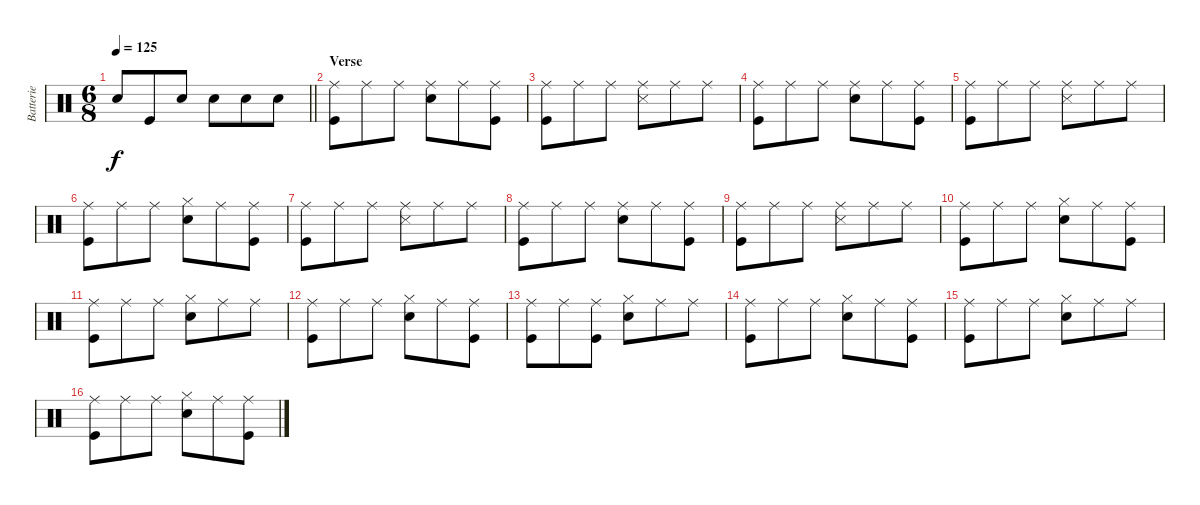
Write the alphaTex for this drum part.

\track ("Batterie" "Batterie") {instrument percussion}
\staff {score}
\articulation defaults
\ts (6 8)
\tempo 125
\clef neutral
\barLineRight lightlight
\ks c "Snare (hit) 2".8{dy f} "Kick (hit)".8 "Snare (hit) 2".8 "Snare (hit) 2".8 "Snare (hit) 2".8 "Snare (hit) 2".8
|
\section ("" "Verse")
("Ride (middle)" "Kick (hit)").8 "Ride (middle)".8 "Ride (middle)".8 ("Ride (middle)" "Snare (hit) 2").8 "Ride (middle)".8 ("Ride (middle)" "Kick (hit)").8 |
("Ride (middle)" "Kick (hit)").8 "Ride (middle)".8 "Ride (middle)".8 ("Ride (middle)" "Snare (side stick) 3").8 "Ride (middle)".8 "Ride (middle)".8 |
("Ride (middle)" "Kick (hit)").8 "Ride (middle)".8 "Ride (middle)".8 ("Ride (middle)" "Snare (hit) 2").8 "Ride (middle)".8 ("Ride (middle)" "Kick (hit)").8 |
("Ride (middle)" "Kick (hit)").8 "Ride (middle)".8 "Ride (middle)".8 ("Ride (middle)" "Snare (side stick) 3").8 "Ride (middle)".8 "Ride (middle)".8 |
("Ride (middle)" "Kick (hit)").8 "Ride (middle)".8 "Ride (middle)".8 ("Hi-Hat (closed)" "Snare (hit) 2").8 "Ride (middle)".8 ("Ride (middle)" "Kick (hit)").8 |
("Ride (middle)" "Kick (hit)").8 "Ride (middle)".8 "Ride (middle)".8 ("Ride (middle)" "Snare (side stick) 3").8 "Ride (middle)".8 "Ride (middle)".8 |
("Ride (middle)" "Kick (hit)").8 "Ride (middle)".8 "Ride (middle)".8 ("Ride (middle)" "Snare (hit) 2").8 "Ride (middle)".8 ("Ride (middle)" "Kick (hit)").8 |
("Ride (middle)" "Kick (hit)").8 "Ride (middle)".8 "Ride (middle)".8 ("Ride (middle)" "Snare (side stick) 3").8 "Ride (middle)".8 "Ride (middle)".8 |
("Ride (middle)" "Kick (hit)").8 "Ride (middle)".8 "Ride (middle)".8 ("Hi-Hat (closed)" "Snare (hit) 2").8 "Ride (middle)".8 ("Ride (middle)" "Kick (hit)").8 |
("Ride (middle)" "Kick (hit)").8 "Ride (middle)".8 "Ride (middle)".8 ("Hi-Hat (closed)" "Snare (hit) 2").8 "Ride (middle)".8 "Ride (middle)".8 |
("Ride (middle)" "Kick (hit)").8 "Ride (middle)".8 "Ride (middle)".8 ("Hi-Hat (closed)" "Snare (hit) 2").8 "Ride (middle)".8 ("Ride (middle)" "Kick (hit)").8 |
("Ride (middle)" "Kick (hit)").8 "Ride (middle)".8 ("Ride (middle)" "Kick (hit)").8 ("Hi-Hat (closed)" "Snare (hit) 2").8 "Ride (middle)".8 "Ride (middle)".8 |
("Ride (middle)" "Kick (hit)").8 "Ride (middle)".8 "Ride (middle)".8 ("Hi-Hat (closed)" "Snare (hit) 2").8 "Ride (middle)".8 ("Ride (middle)" "Kick (hit)").8 |
("Ride (middle)" "Kick (hit)").8 "Ride (middle)".8 "Ride (middle)".8 ("Hi-Hat (closed)" "Snare (hit) 2").8 "Ride (middle)".8 "Ride (middle)".8 |
("Ride (middle)" "Kick (hit)").8 "Ride (middle)".8 "Ride (middle)".8 ("Hi-Hat (closed)" "Snare (hit) 2").8 "Ride (middle)".8 ("Ride (middle)" "Kick (hit)").8
